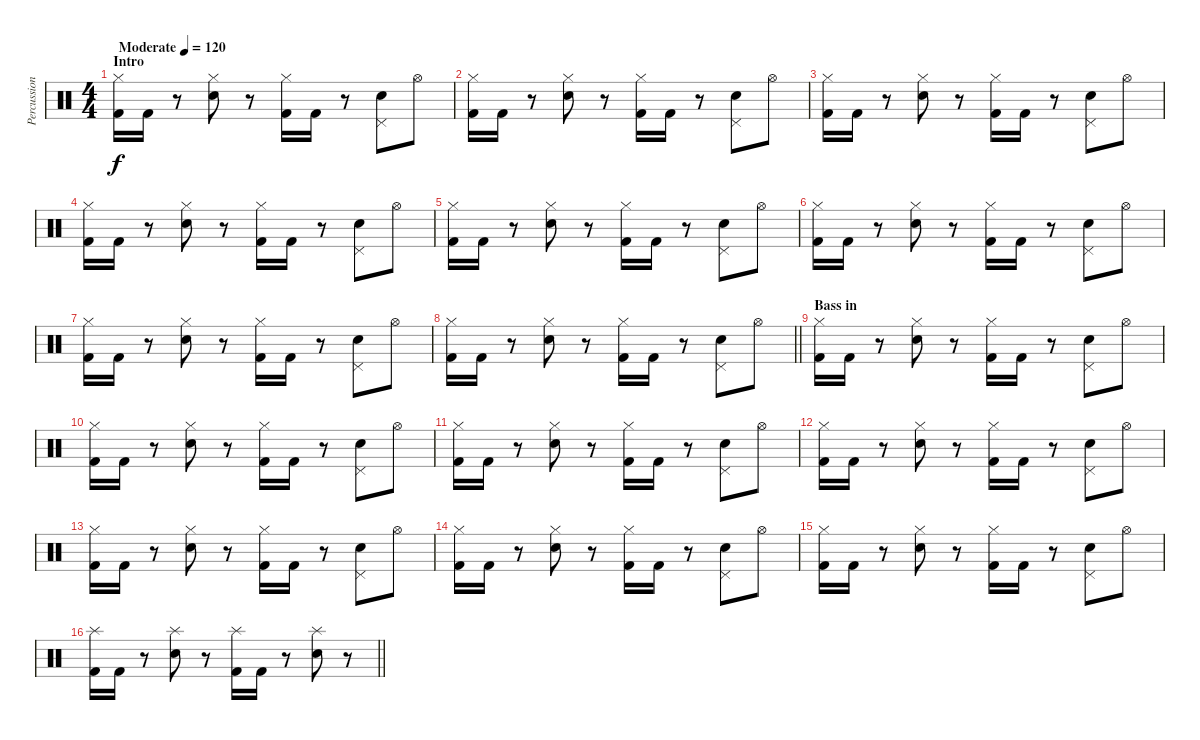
\track ("Percussion" "Percussion") {instrument percussion}
\staff {score}
\articulation defaults
\ts (4 4)
\section ("" "Intro")
\tempo (120 "Moderate")
\clef neutral
\ks c
("Hi-Hat (closed)" "Kick (hit) 2").16{dy f} "Kick (hit) 2".16 r.8 ("Hi-Hat (closed)" "Electric Snare (hit)").8 r.8 ("Hi-Hat (closed)" "Kick (hit) 2").16 "Kick (hit) 2".16 r.8 ("Pedal Hi-Hat (hit)" "Electric Snare (hit)").8 "Hi-Hat (open)".8 |
("Hi-Hat (closed)" "Kick (hit) 2").16 "Kick (hit) 2".16 r.8 ("Hi-Hat (closed)" "Electric Snare (hit)").8 r.8 ("Hi-Hat (closed)" "Kick (hit) 2").16 "Kick (hit) 2".16 r.8 ("Pedal Hi-Hat (hit)" "Electric Snare (hit)").8 "Hi-Hat (open)".8 |
("Hi-Hat (closed)" "Kick (hit) 2").16 "Kick (hit) 2".16 r.8 ("Hi-Hat (closed)" "Electric Snare (hit)").8 r.8 ("Hi-Hat (closed)" "Kick (hit) 2").16 "Kick (hit) 2".16 r.8 ("Pedal Hi-Hat (hit)" "Electric Snare (hit)").8 "Hi-Hat (open)".8 |
("Hi-Hat (closed)" "Kick (hit) 2").16 "Kick (hit) 2".16 r.8 ("Hi-Hat (closed)" "Electric Snare (hit)").8 r.8 ("Hi-Hat (closed)" "Kick (hit) 2").16 "Kick (hit) 2".16 r.8 ("Pedal Hi-Hat (hit)" "Electric Snare (hit)").8 "Hi-Hat (open)".8 |
("Hi-Hat (closed)" "Kick (hit) 2").16 "Kick (hit) 2".16 r.8 ("Hi-Hat (closed)" "Electric Snare (hit)").8 r.8 ("Hi-Hat (closed)" "Kick (hit) 2").16 "Kick (hit) 2".16 r.8 ("Pedal Hi-Hat (hit)" "Electric Snare (hit)").8 "Hi-Hat (open)".8 |
("Hi-Hat (closed)" "Kick (hit) 2").16 "Kick (hit) 2".16 r.8 ("Hi-Hat (closed)" "Electric Snare (hit)").8 r.8 ("Hi-Hat (closed)" "Kick (hit) 2").16 "Kick (hit) 2".16 r.8 ("Pedal Hi-Hat (hit)" "Electric Snare (hit)").8 "Hi-Hat (open)".8 |
("Hi-Hat (closed)" "Kick (hit) 2").16 "Kick (hit) 2".16 r.8 ("Hi-Hat (closed)" "Electric Snare (hit)").8 r.8 ("Hi-Hat (closed)" "Kick (hit) 2").16 "Kick (hit) 2".16 r.8 ("Pedal Hi-Hat (hit)" "Electric Snare (hit)").8 "Hi-Hat (open)".8 |
\barLineRight lightlight
("Hi-Hat (closed)" "Kick (hit) 2").16 "Kick (hit) 2".16 r.8 ("Hi-Hat (closed)" "Electric Snare (hit)").8 r.8 ("Hi-Hat (closed)" "Kick (hit) 2").16 "Kick (hit) 2".16 r.8 ("Pedal Hi-Hat (hit)" "Electric Snare (hit)").8 "Hi-Hat (open)".8 |
\section ("" "Bass in")
("Hi-Hat (closed)" "Kick (hit) 2").16 "Kick (hit) 2".16 r.8 ("Hi-Hat (closed)" "Electric Snare (hit)").8 r.8 ("Hi-Hat (closed)" "Kick (hit) 2").16 "Kick (hit) 2".16 r.8 ("Pedal Hi-Hat (hit)" "Electric Snare (hit)").8 "Hi-Hat (open)".8 |
("Hi-Hat (closed)" "Kick (hit) 2").16 "Kick (hit) 2".16 r.8 ("Hi-Hat (closed)" "Electric Snare (hit)").8 r.8 ("Hi-Hat (closed)" "Kick (hit) 2").16 "Kick (hit) 2".16 r.8 ("Pedal Hi-Hat (hit)" "Electric Snare (hit)").8 "Hi-Hat (open)".8 |
("Hi-Hat (closed)" "Kick (hit) 2").16 "Kick (hit) 2".16 r.8 ("Hi-Hat (closed)" "Electric Snare (hit)").8 r.8 ("Hi-Hat (closed)" "Kick (hit) 2").16 "Kick (hit) 2".16 r.8 ("Pedal Hi-Hat (hit)" "Electric Snare (hit)").8 "Hi-Hat (open)".8 |
("Hi-Hat (closed)" "Kick (hit) 2").16 "Kick (hit) 2".16 r.8 ("Hi-Hat (closed)" "Electric Snare (hit)").8 r.8 ("Hi-Hat (closed)" "Kick (hit) 2").16 "Kick (hit) 2".16 r.8 ("Pedal Hi-Hat (hit)" "Electric Snare (hit)").8 "Hi-Hat (open)".8 |
("Hi-Hat (closed)" "Kick (hit) 2").16 "Kick (hit) 2".16 r.8 ("Hi-Hat (closed)" "Electric Snare (hit)").8 r.8 ("Hi-Hat (closed)" "Kick (hit) 2").16 "Kick (hit) 2".16 r.8 ("Pedal Hi-Hat (hit)" "Electric Snare (hit)").8 "Hi-Hat (open)".8 |
("Hi-Hat (closed)" "Kick (hit) 2").16 "Kick (hit) 2".16 r.8 ("Hi-Hat (closed)" "Electric Snare (hit)").8 r.8 ("Hi-Hat (closed)" "Kick (hit) 2").16 "Kick (hit) 2".16 r.8 ("Pedal Hi-Hat (hit)" "Electric Snare (hit)").8 "Hi-Hat (open)".8 |
("Hi-Hat (closed)" "Kick (hit) 2").16 "Kick (hit) 2".16 r.8 ("Hi-Hat (closed)" "Electric Snare (hit)").8 r.8 ("Hi-Hat (closed)" "Kick (hit) 2").16 "Kick (hit) 2".16 r.8 ("Pedal Hi-Hat (hit)" "Electric Snare (hit)").8 "Hi-Hat (open)".8 |
\barLineRight lightlight
("Splash (hit)" "Kick (hit) 2").16 "Kick (hit) 2".16 r.8 ("Splash (hit)" "Electric Snare (hit)").8 r.8 ("Splash (hit)" "Kick (hit) 2").16 "Kick (hit) 2".16 r.8 ("Splash (hit)" "Electric Snare (hit)").8 r.8
